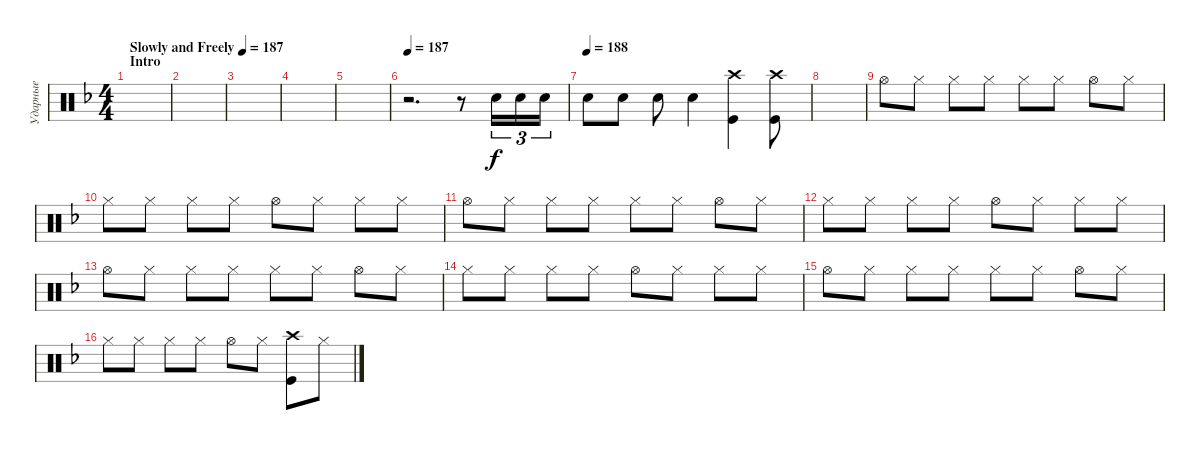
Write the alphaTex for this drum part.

\track ("Ударные" "Ударные") {instrument percussion}
\staff {score}
\articulation defaults
\ts (4 4)
\section ("" "Intro")
\tempo (187 "Slowly and Freely")
\tempo 133
\tempo (187 "Slowly and Freely")
\clef neutral
\ks dminor
|
|
|
|
|
\tempo 187
r.2{d} r.8 "Snare (hit) 2".16{tu (3 2)} "Snare (hit) 2".16{tu (3 2)} "Snare (hit) 2".16{tu (3 2)} |
\tempo (188)
"Snare (hit) 2".8 "Snare (hit) 2".8 "Snare (hit) 2".8 "Snare (hit) 2".4 ("Kick (hit)" "Crash high (hit)").4 ("Kick (hit)" "Crash high (hit)").8 |
|
"Hi-Hat (open)".8 "Hi-Hat (closed)".8 "Hi-Hat (closed)".8 "Hi-Hat (closed)".8 "Hi-Hat (closed)".8 "Hi-Hat (closed)".8 "Hi-Hat (open)".8 "Hi-Hat (closed)".8 |
"Hi-Hat (closed)".8 "Hi-Hat (closed)".8 "Hi-Hat (closed)".8 "Hi-Hat (closed)".8 "Hi-Hat (open)".8 "Hi-Hat (closed)".8 "Hi-Hat (closed)".8 "Hi-Hat (closed)".8 |
"Hi-Hat (open)".8 "Hi-Hat (closed)".8 "Hi-Hat (closed)".8 "Hi-Hat (closed)".8 "Hi-Hat (closed)".8 "Hi-Hat (closed)".8 "Hi-Hat (open)".8 "Hi-Hat (closed)".8 |
"Hi-Hat (closed)".8 "Hi-Hat (closed)".8 "Hi-Hat (closed)".8 "Hi-Hat (closed)".8 "Hi-Hat (open)".8 "Hi-Hat (closed)".8 "Hi-Hat (closed)".8 "Hi-Hat (closed)".8 |
"Hi-Hat (open)".8 "Hi-Hat (closed)".8 "Hi-Hat (closed)".8 "Hi-Hat (closed)".8 "Hi-Hat (closed)".8 "Hi-Hat (closed)".8 "Hi-Hat (open)".8 "Hi-Hat (closed)".8 |
"Hi-Hat (closed)".8 "Hi-Hat (closed)".8 "Hi-Hat (closed)".8 "Hi-Hat (closed)".8 "Hi-Hat (open)".8 "Hi-Hat (closed)".8 "Hi-Hat (closed)".8 "Hi-Hat (closed)".8 |
"Hi-Hat (open)".8 "Hi-Hat (closed)".8 "Hi-Hat (closed)".8 "Hi-Hat (closed)".8 "Hi-Hat (closed)".8 "Hi-Hat (closed)".8 "Hi-Hat (open)".8 "Hi-Hat (closed)".8 |
"Hi-Hat (closed)".8 "Hi-Hat (closed)".8 "Hi-Hat (closed)".8 "Hi-Hat (closed)".8 "Hi-Hat (open)".8 "Hi-Hat (closed)".8 ("Crash high (hit)" "Kick (hit)").8 "Hi-Hat (closed)".8
